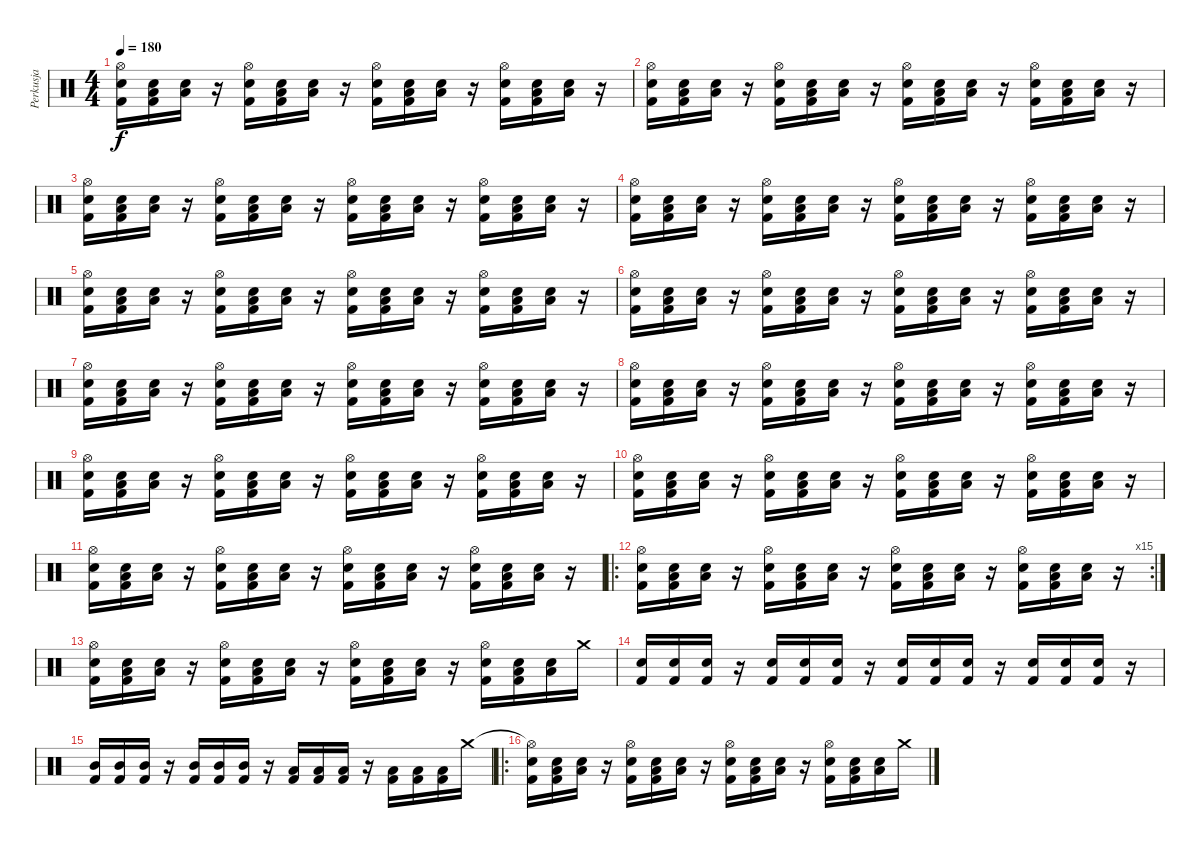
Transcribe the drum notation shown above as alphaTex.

\track ("Perkusja" "Perkusja") {instrument percussion}
\staff {score}
\articulation defaults
\ts (4 4)
\tempo 180
\clef neutral
\ks c
("Hi-Hat (open)" "Snare (hit) 2" "Kick (hit) 2").16{dy f} ("Low Tom (hit)" "Snare (hit) 2" "Kick (hit) 2").16 ("Low Tom (hit)" "Snare (hit) 2").16 r.16 ("Hi-Hat (open)" "Snare (hit) 2" "Kick (hit) 2").16 ("Low Tom (hit)" "Snare (hit) 2" "Kick (hit) 2").16 ("Low Tom (hit)" "Snare (hit) 2").16 r.16 ("Hi-Hat (open)" "Snare (hit) 2" "Kick (hit) 2").16 ("Low Tom (hit)" "Snare (hit) 2" "Kick (hit) 2").16 ("Low Tom (hit)" "Snare (hit) 2").16 r.16 ("Hi-Hat (open)" "Snare (hit) 2" "Kick (hit) 2").16 ("Low Tom (hit)" "Snare (hit) 2" "Kick (hit) 2").16 ("Low Tom (hit)" "Snare (hit) 2").16 r.16 |
("Hi-Hat (open)" "Snare (hit) 2" "Kick (hit) 2").16 ("Low Tom (hit)" "Snare (hit) 2" "Kick (hit) 2").16 ("Low Tom (hit)" "Snare (hit) 2").16 r.16 ("Hi-Hat (open)" "Snare (hit) 2" "Kick (hit) 2").16 ("Low Tom (hit)" "Snare (hit) 2" "Kick (hit) 2").16 ("Low Tom (hit)" "Snare (hit) 2").16 r.16 ("Hi-Hat (open)" "Snare (hit) 2" "Kick (hit) 2").16 ("Low Tom (hit)" "Snare (hit) 2" "Kick (hit) 2").16 ("Low Tom (hit)" "Snare (hit) 2").16 r.16 ("Hi-Hat (open)" "Snare (hit) 2" "Kick (hit) 2").16 ("Low Tom (hit)" "Snare (hit) 2" "Kick (hit) 2").16 ("Low Tom (hit)" "Snare (hit) 2").16 r.16 |
("Hi-Hat (open)" "Snare (hit) 2" "Kick (hit) 2").16 ("Low Tom (hit)" "Snare (hit) 2" "Kick (hit) 2").16 ("Low Tom (hit)" "Snare (hit) 2").16 r.16 ("Hi-Hat (open)" "Snare (hit) 2" "Kick (hit) 2").16 ("Low Tom (hit)" "Snare (hit) 2" "Kick (hit) 2").16 ("Low Tom (hit)" "Snare (hit) 2").16 r.16 ("Hi-Hat (open)" "Snare (hit) 2" "Kick (hit) 2").16 ("Low Tom (hit)" "Snare (hit) 2" "Kick (hit) 2").16 ("Low Tom (hit)" "Snare (hit) 2").16 r.16 ("Hi-Hat (open)" "Snare (hit) 2" "Kick (hit) 2").16 ("Low Tom (hit)" "Snare (hit) 2" "Kick (hit) 2").16 ("Low Tom (hit)" "Snare (hit) 2").16 r.16 |
("Hi-Hat (open)" "Snare (hit) 2" "Kick (hit) 2").16 ("Low Tom (hit)" "Snare (hit) 2" "Kick (hit) 2").16 ("Low Tom (hit)" "Snare (hit) 2").16 r.16 ("Hi-Hat (open)" "Snare (hit) 2" "Kick (hit) 2").16 ("Low Tom (hit)" "Snare (hit) 2" "Kick (hit) 2").16 ("Low Tom (hit)" "Snare (hit) 2").16 r.16 ("Hi-Hat (open)" "Snare (hit) 2" "Kick (hit) 2").16 ("Low Tom (hit)" "Snare (hit) 2" "Kick (hit) 2").16 ("Low Tom (hit)" "Snare (hit) 2").16 r.16 ("Hi-Hat (open)" "Snare (hit) 2" "Kick (hit) 2").16 ("Low Tom (hit)" "Snare (hit) 2" "Kick (hit) 2").16 ("Low Tom (hit)" "Snare (hit) 2").16 r.16 |
("Hi-Hat (open)" "Snare (hit) 2" "Kick (hit) 2").16 ("Low Tom (hit)" "Snare (hit) 2" "Kick (hit) 2").16 ("Low Tom (hit)" "Snare (hit) 2").16 r.16 ("Hi-Hat (open)" "Snare (hit) 2" "Kick (hit) 2").16 ("Low Tom (hit)" "Snare (hit) 2" "Kick (hit) 2").16 ("Low Tom (hit)" "Snare (hit) 2").16 r.16 ("Hi-Hat (open)" "Snare (hit) 2" "Kick (hit) 2").16 ("Low Tom (hit)" "Snare (hit) 2" "Kick (hit) 2").16 ("Low Tom (hit)" "Snare (hit) 2").16 r.16 ("Hi-Hat (open)" "Snare (hit) 2" "Kick (hit) 2").16 ("Low Tom (hit)" "Snare (hit) 2" "Kick (hit) 2").16 ("Low Tom (hit)" "Snare (hit) 2").16 r.16 |
("Hi-Hat (open)" "Snare (hit) 2" "Kick (hit) 2").16 ("Low Tom (hit)" "Snare (hit) 2" "Kick (hit) 2").16 ("Low Tom (hit)" "Snare (hit) 2").16 r.16 ("Hi-Hat (open)" "Snare (hit) 2" "Kick (hit) 2").16 ("Low Tom (hit)" "Snare (hit) 2" "Kick (hit) 2").16 ("Low Tom (hit)" "Snare (hit) 2").16 r.16 ("Hi-Hat (open)" "Snare (hit) 2" "Kick (hit) 2").16 ("Low Tom (hit)" "Snare (hit) 2" "Kick (hit) 2").16 ("Low Tom (hit)" "Snare (hit) 2").16 r.16 ("Hi-Hat (open)" "Snare (hit) 2" "Kick (hit) 2").16 ("Low Tom (hit)" "Snare (hit) 2" "Kick (hit) 2").16 ("Low Tom (hit)" "Snare (hit) 2").16 r.16 |
("Hi-Hat (open)" "Snare (hit) 2" "Kick (hit) 2").16 ("Low Tom (hit)" "Snare (hit) 2" "Kick (hit) 2").16 ("Low Tom (hit)" "Snare (hit) 2").16 r.16 ("Hi-Hat (open)" "Snare (hit) 2" "Kick (hit) 2").16 ("Low Tom (hit)" "Snare (hit) 2" "Kick (hit) 2").16 ("Low Tom (hit)" "Snare (hit) 2").16 r.16 ("Hi-Hat (open)" "Snare (hit) 2" "Kick (hit) 2").16 ("Low Tom (hit)" "Snare (hit) 2" "Kick (hit) 2").16 ("Low Tom (hit)" "Snare (hit) 2").16 r.16 ("Hi-Hat (open)" "Snare (hit) 2" "Kick (hit) 2").16 ("Low Tom (hit)" "Snare (hit) 2" "Kick (hit) 2").16 ("Low Tom (hit)" "Snare (hit) 2").16 r.16 |
("Hi-Hat (open)" "Snare (hit) 2" "Kick (hit) 2").16 ("Low Tom (hit)" "Snare (hit) 2" "Kick (hit) 2").16 ("Low Tom (hit)" "Snare (hit) 2").16 r.16 ("Hi-Hat (open)" "Snare (hit) 2" "Kick (hit) 2").16 ("Low Tom (hit)" "Snare (hit) 2" "Kick (hit) 2").16 ("Low Tom (hit)" "Snare (hit) 2").16 r.16 ("Hi-Hat (open)" "Snare (hit) 2" "Kick (hit) 2").16 ("Low Tom (hit)" "Snare (hit) 2" "Kick (hit) 2").16 ("Low Tom (hit)" "Snare (hit) 2").16 r.16 ("Hi-Hat (open)" "Snare (hit) 2" "Kick (hit) 2").16 ("Low Tom (hit)" "Snare (hit) 2" "Kick (hit) 2").16 ("Low Tom (hit)" "Snare (hit) 2").16 r.16 |
("Hi-Hat (open)" "Snare (hit) 2" "Kick (hit) 2").16 ("Low Tom (hit)" "Snare (hit) 2" "Kick (hit) 2").16 ("Low Tom (hit)" "Snare (hit) 2").16 r.16 ("Hi-Hat (open)" "Snare (hit) 2" "Kick (hit) 2").16 ("Low Tom (hit)" "Snare (hit) 2" "Kick (hit) 2").16 ("Low Tom (hit)" "Snare (hit) 2").16 r.16 ("Hi-Hat (open)" "Snare (hit) 2" "Kick (hit) 2").16 ("Low Tom (hit)" "Snare (hit) 2" "Kick (hit) 2").16 ("Low Tom (hit)" "Snare (hit) 2").16 r.16 ("Hi-Hat (open)" "Snare (hit) 2" "Kick (hit) 2").16 ("Low Tom (hit)" "Snare (hit) 2" "Kick (hit) 2").16 ("Low Tom (hit)" "Snare (hit) 2").16 r.16 |
("Hi-Hat (open)" "Snare (hit) 2" "Kick (hit) 2").16 ("Low Tom (hit)" "Snare (hit) 2" "Kick (hit) 2").16 ("Low Tom (hit)" "Snare (hit) 2").16 r.16 ("Hi-Hat (open)" "Snare (hit) 2" "Kick (hit) 2").16 ("Low Tom (hit)" "Snare (hit) 2" "Kick (hit) 2").16 ("Low Tom (hit)" "Snare (hit) 2").16 r.16 ("Hi-Hat (open)" "Snare (hit) 2" "Kick (hit) 2").16 ("Low Tom (hit)" "Snare (hit) 2" "Kick (hit) 2").16 ("Low Tom (hit)" "Snare (hit) 2").16 r.16 ("Hi-Hat (open)" "Snare (hit) 2" "Kick (hit) 2").16 ("Low Tom (hit)" "Snare (hit) 2" "Kick (hit) 2").16 ("Low Tom (hit)" "Snare (hit) 2").16 r.16 |
("Hi-Hat (open)" "Snare (hit) 2" "Kick (hit) 2").16 ("Low Tom (hit)" "Snare (hit) 2" "Kick (hit) 2").16 ("Low Tom (hit)" "Snare (hit) 2").16 r.16 ("Hi-Hat (open)" "Snare (hit) 2" "Kick (hit) 2").16 ("Low Tom (hit)" "Snare (hit) 2" "Kick (hit) 2").16 ("Low Tom (hit)" "Snare (hit) 2").16 r.16 ("Hi-Hat (open)" "Snare (hit) 2" "Kick (hit) 2").16 ("Low Tom (hit)" "Snare (hit) 2" "Kick (hit) 2").16 ("Low Tom (hit)" "Snare (hit) 2").16 r.16 ("Hi-Hat (open)" "Snare (hit) 2" "Kick (hit) 2").16 ("Low Tom (hit)" "Snare (hit) 2" "Kick (hit) 2").16 ("Low Tom (hit)" "Snare (hit) 2").16 r.16 |
\ro
\rc 15
("Hi-Hat (open)" "Snare (hit) 2" "Kick (hit) 2").16 ("Low Tom (hit)" "Snare (hit) 2" "Kick (hit) 2").16 ("Low Tom (hit)" "Snare (hit) 2").16 r.16 ("Hi-Hat (open)" "Snare (hit) 2" "Kick (hit) 2").16 ("Low Tom (hit)" "Snare (hit) 2" "Kick (hit) 2").16 ("Low Tom (hit)" "Snare (hit) 2").16 r.16 ("Hi-Hat (open)" "Snare (hit) 2" "Kick (hit) 2").16 ("Low Tom (hit)" "Snare (hit) 2" "Kick (hit) 2").16 ("Low Tom (hit)" "Snare (hit) 2").16 r.16 ("Hi-Hat (open)" "Snare (hit) 2" "Kick (hit) 2").16 ("Low Tom (hit)" "Snare (hit) 2" "Kick (hit) 2").16 ("Low Tom (hit)" "Snare (hit) 2").16 r.16 |
("Hi-Hat (open)" "Snare (hit) 2" "Kick (hit) 2").16 ("Low Tom (hit)" "Snare (hit) 2" "Kick (hit) 2").16 ("Low Tom (hit)" "Snare (hit) 2").16 r.16 ("Hi-Hat (open)" "Snare (hit) 2" "Kick (hit) 2").16 ("Low Tom (hit)" "Snare (hit) 2" "Kick (hit) 2").16 ("Low Tom (hit)" "Snare (hit) 2").16 r.16 ("Hi-Hat (open)" "Snare (hit) 2" "Kick (hit) 2").16 ("Low Tom (hit)" "Snare (hit) 2" "Kick (hit) 2").16 ("Low Tom (hit)" "Snare (hit) 2").16 r.16 ("Hi-Hat (open)" "Snare (hit) 2" "Kick (hit) 2").16 ("Low Tom (hit)" "Snare (hit) 2" "Kick (hit) 2").16 ("Low Tom (hit)" "Snare (hit) 2").16 "Crash medium (hit)".16 |
("Snare (hit) 2" "Kick (hit) 2").16 ("Snare (hit) 2" "Kick (hit) 2").16 ("Snare (hit) 2" "Kick (hit) 2").16 r.16 ("Snare (hit) 2" "Kick (hit) 2").16 ("Snare (hit) 2" "Kick (hit) 2").16 ("Snare (hit) 2" "Kick (hit) 2").16 r.16 ("Snare (hit) 2" "Kick (hit) 2").16 ("Snare (hit) 2" "Kick (hit) 2").16 ("Snare (hit) 2" "Kick (hit) 2").16 r.16 ("Snare (hit) 2" "Kick (hit) 2").16 ("Snare (hit) 2" "Kick (hit) 2").16 ("Snare (hit) 2" "Kick (hit) 2").16 r.16 |
("Mid Tom (hit)" "Kick (hit) 2").16 ("Mid Tom (hit)" "Kick (hit) 2").16 ("Mid Tom (hit)" "Kick (hit) 2").16 r.16 ("Mid Tom (hit)" "Kick (hit) 2").16 ("Mid Tom (hit)" "Kick (hit) 2").16 ("Mid Tom (hit)" "Kick (hit) 2").16 r.16 ("Low Tom (hit)" "Kick (hit) 2").16 ("Low Tom (hit)" "Kick (hit) 2").16 ("Low Tom (hit)" "Kick (hit) 2").16 r.16 ("Low Tom (hit)" "Kick (hit) 2").16 ("Low Tom (hit)" "Kick (hit) 2").16 ("Low Tom (hit)" "Kick (hit) 2").16 "Crash medium (hit)".16 |
\ro
("Hi-Hat (open)"{t} "Snare (hit) 2" "Kick (hit) 2").16 ("Low Tom (hit)" "Snare (hit) 2" "Kick (hit) 2").16 ("Low Tom (hit)" "Snare (hit) 2").16 r.16 ("Hi-Hat (open)" "Snare (hit) 2" "Kick (hit) 2").16 ("Low Tom (hit)" "Snare (hit) 2" "Kick (hit) 2").16 ("Low Tom (hit)" "Snare (hit) 2").16 r.16 ("Hi-Hat (open)" "Snare (hit) 2" "Kick (hit) 2").16 ("Low Tom (hit)" "Snare (hit) 2" "Kick (hit) 2").16 ("Low Tom (hit)" "Snare (hit) 2").16 r.16 ("Hi-Hat (open)" "Snare (hit) 2" "Kick (hit) 2").16 ("Low Tom (hit)" "Snare (hit) 2" "Kick (hit) 2").16 ("Low Tom (hit)" "Snare (hit) 2").16 "Crash medium (hit)".16
